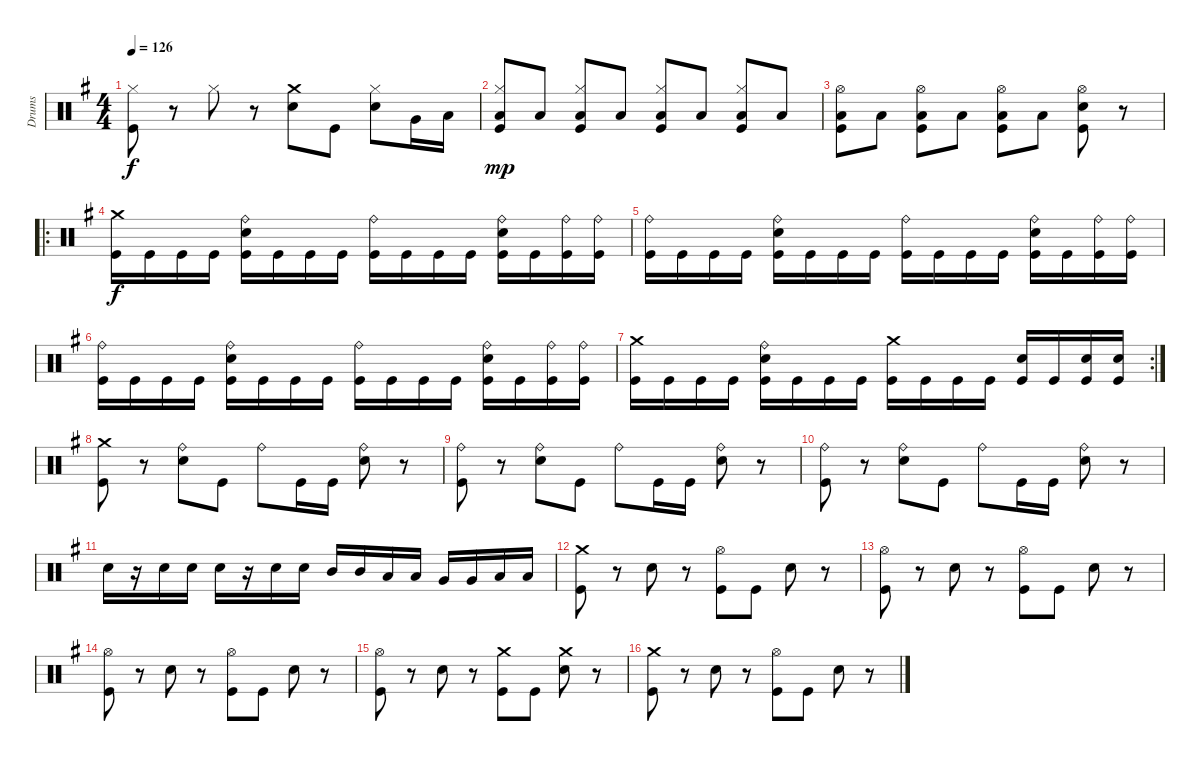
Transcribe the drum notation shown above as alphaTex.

\track ("Drums" "Drums") {instrument percussion}
\staff {score}
\articulation defaults
\ts (4 4)
\tempo 126
\clef neutral
\ks g
("Kick (hit)" "Hi-Hat (closed)").8{dy f} r.8 "Hi-Hat (closed)".8 r.8 ("Electric Snare (hit)" "Crash medium (hit)").8 "Kick (hit)".8 ("Electric Snare (hit)" "Hi-Hat (closed)").8 "Very Low Tom (hit)".16 "Low Floor Tom (hit)".16 |
("Kick (hit)" "Low Floor Tom (hit)" "Hi-Hat (closed)").8{dy mp} "Low Floor Tom (hit)".8 ("Kick (hit)" "Low Floor Tom (hit)" "Hi-Hat (closed)").8 "Low Floor Tom (hit)".8 ("Kick (hit)" "Low Floor Tom (hit)" "Hi-Hat (closed)").8 "Low Floor Tom (hit)".8 ("Kick (hit)" "Low Floor Tom (hit)" "Hi-Hat (closed)").8 "Low Floor Tom (hit)".8 |
("Kick (hit)" "Low Floor Tom (hit)" "Hi-Hat (open)").8 "Low Floor Tom (hit)".8 ("Kick (hit)" "Low Floor Tom (hit)" "Hi-Hat (open)").8 "Low Floor Tom (hit)".8 ("Kick (hit)" "Low Floor Tom (hit)" "Hi-Hat (open)").8 "Low Floor Tom (hit)".8 ("Kick (hit)" "Electric Snare (hit)" "Hi-Hat (open)").8 r.8 |
\ro
("Kick (hit)" "Crash medium (hit)").16{dy f} "Kick (hit)".16 "Kick (hit)".16 "Kick (hit)".16 ("Kick (hit)" "Electric Snare (hit)" "Ride (bell)").16 "Kick (hit)".16 "Kick (hit)".16 "Kick (hit)".16 ("Kick (hit)" "Ride (bell)").16 "Kick (hit)".16 "Kick (hit)".16 "Kick (hit)".16 ("Kick (hit)" "Electric Snare (hit)" "Ride (bell)").16 "Kick (hit)".16 ("Kick (hit)" "Ride (bell)").16 ("Kick (hit)" "Ride (bell)").16 |
("Kick (hit)" "Ride (bell)").16 "Kick (hit)".16 "Kick (hit)".16 "Kick (hit)".16 ("Kick (hit)" "Electric Snare (hit)" "Ride (bell)").16 "Kick (hit)".16 "Kick (hit)".16 "Kick (hit)".16 ("Kick (hit)" "Ride (bell)").16 "Kick (hit)".16 "Kick (hit)".16 "Kick (hit)".16 ("Kick (hit)" "Electric Snare (hit)" "Ride (bell)").16 "Kick (hit)".16 ("Kick (hit)" "Ride (bell)").16 ("Kick (hit)" "Ride (bell)").16 |
("Kick (hit)" "Ride (bell)").16 "Kick (hit)".16 "Kick (hit)".16 "Kick (hit)".16 ("Kick (hit)" "Electric Snare (hit)" "Ride (bell)").16 "Kick (hit)".16 "Kick (hit)".16 "Kick (hit)".16 ("Kick (hit)" "Ride (bell)").16 "Kick (hit)".16 "Kick (hit)".16 "Kick (hit)".16 ("Kick (hit)" "Electric Snare (hit)" "Ride (bell)").16 "Kick (hit)".16 ("Kick (hit)" "Ride (bell)").16 ("Kick (hit)" "Ride (bell)").16 |
\rc 2
("Kick (hit)" "Crash medium (hit)").16 "Kick (hit)".16 "Kick (hit)".16 "Kick (hit)".16 ("Kick (hit)" "Electric Snare (hit)" "Ride (bell)").16 "Kick (hit)".16 "Kick (hit)".16 "Kick (hit)".16 ("Kick (hit)" "Crash medium (hit)").16 "Kick (hit)".16 "Kick (hit)".16 "Kick (hit)".16 ("Kick (hit)" "Electric Snare (hit)").16 "Kick (hit)".16 ("Kick (hit)" "Electric Snare (hit)").16 ("Kick (hit)" "Electric Snare (hit)").16 |
("Kick (hit)" "Crash medium (hit)").8 r.8 ("Electric Snare (hit)" "Ride (bell)").8 "Kick (hit)".8 "Ride (bell)".8 "Kick (hit)".16 "Kick (hit)".16 ("Electric Snare (hit)" "Ride (bell)").8 r.8 |
("Kick (hit)" "Ride (bell)").8 r.8 ("Electric Snare (hit)" "Ride (bell)").8 "Kick (hit)".8 "Ride (bell)".8 "Kick (hit)".16 "Kick (hit)".16 ("Electric Snare (hit)" "Ride (bell)").8 r.8 |
("Kick (hit)" "Ride (bell)").8 r.8 ("Electric Snare (hit)" "Ride (bell)").8 "Kick (hit)".8 "Ride (bell)".8 "Kick (hit)".16 "Kick (hit)".16 ("Electric Snare (hit)" "Ride (bell)").8 r.8 |
"Electric Snare (hit)".16 r.16 "Electric Snare (hit)".16 "Electric Snare (hit)".16 "Electric Snare (hit)".16 r.16 "Electric Snare (hit)".16 "Electric Snare (hit)".16 "Mid Tom (hit)".16 "Mid Tom (hit)".16 "Low Tom (hit)".16 "Low Tom (hit)".16 "Very Low Tom (hit)".16 "Very Low Tom (hit)".16 "Low Floor Tom (hit)".16 "Low Floor Tom (hit)".16 |
("Kick (hit)" "Crash medium (hit)").8 r.8 "Electric Snare (hit)".8 r.8 ("Kick (hit)" "Hi-Hat (open)").8 "Kick (hit)".8 "Electric Snare (hit)".8 r.8 |
("Kick (hit)" "Hi-Hat (open)").8 r.8 "Electric Snare (hit)".8 r.8 ("Kick (hit)" "Hi-Hat (open)").8 "Kick (hit)".8 "Electric Snare (hit)".8 r.8 |
("Kick (hit)" "Hi-Hat (open)").8 r.8 "Electric Snare (hit)".8 r.8 ("Kick (hit)" "Hi-Hat (open)").8 "Kick (hit)".8 "Electric Snare (hit)".8 r.8 |
("Kick (hit)" "Hi-Hat (open)").8 r.8 "Electric Snare (hit)".8 r.8 ("Kick (hit)" "Crash medium (hit)").8 "Kick (hit)".8 ("Electric Snare (hit)" "Crash medium (hit)").8 r.8 |
("Kick (hit)" "Crash medium (hit)").8 r.8 "Electric Snare (hit)".8 r.8 ("Kick (hit)" "Hi-Hat (open)").8 "Kick (hit)".8 "Electric Snare (hit)".8 r.8
